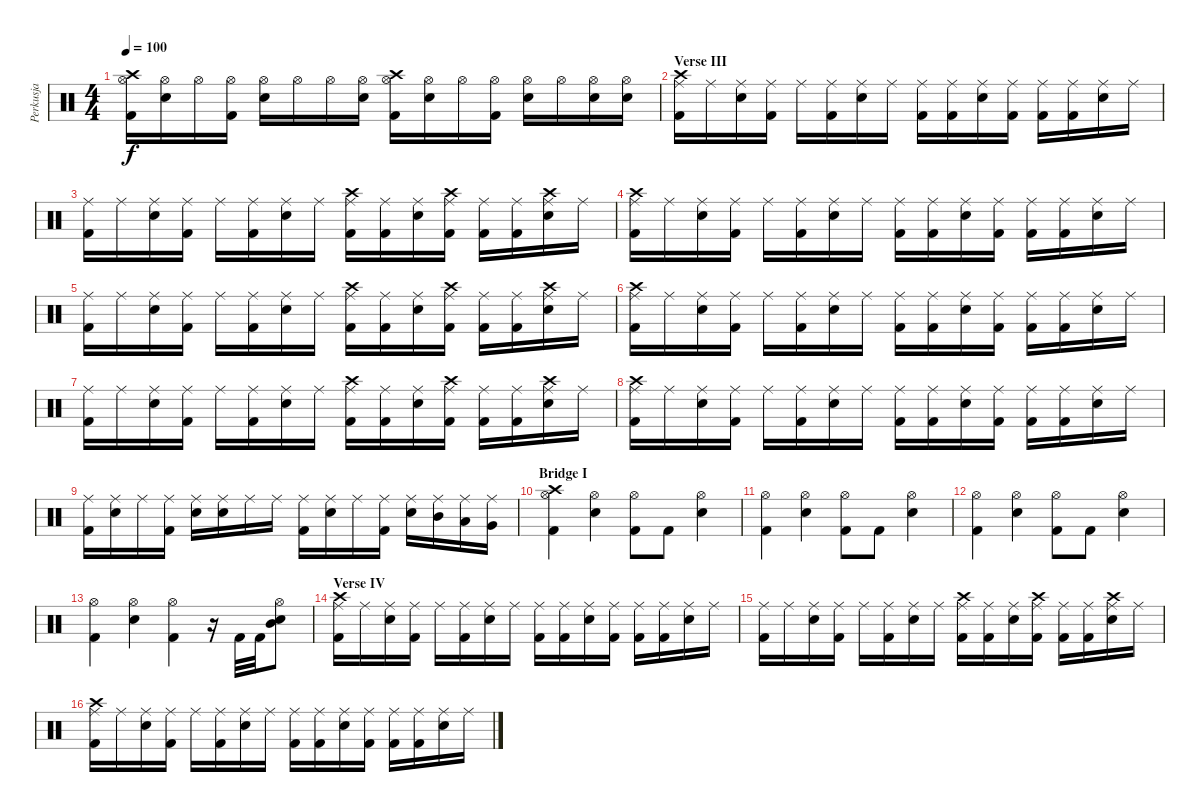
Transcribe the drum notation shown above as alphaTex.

\track ("Perkusja" "Perkusja") {instrument percussion}
\staff {score}
\articulation defaults
\ts (4 4)
\tempo 100
\clef neutral
\ks c
("Kick (hit) 2" "Hi-Hat (open)" "Crash high (hit)").16{dy f} ("Snare (hit) 2" "Hi-Hat (open)").16 "Hi-Hat (open)".16 ("Kick (hit) 2" "Hi-Hat (open)").16 ("Snare (hit) 2" "Hi-Hat (open)").16 "Hi-Hat (open)".16 "Hi-Hat (open)".16 ("Snare (hit) 2" "Hi-Hat (open)").16 ("Kick (hit) 2" "Hi-Hat (open)" "Crash high (hit)").16 ("Snare (hit) 2" "Hi-Hat (open)").16 "Hi-Hat (open)".16 ("Kick (hit) 2" "Hi-Hat (open)").16 ("Snare (hit) 2" "Hi-Hat (open)").16 "Hi-Hat (open)".16 ("Snare (hit) 2" "Hi-Hat (open)").16 ("Snare (hit) 2" "Hi-Hat (open)").16 |
\section ("" "Verse III")
("Kick (hit) 2" "Ride (middle)" "Crash high (hit)").16 "Ride (middle)".16 ("Snare (hit) 2" "Ride (middle)").16 ("Kick (hit) 2" "Ride (middle)").16 "Ride (middle)".16 ("Kick (hit) 2" "Ride (middle)").16 ("Snare (hit) 2" "Ride (middle)").16 "Ride (middle)".16 ("Kick (hit) 2" "Ride (middle)").16 ("Kick (hit) 2" "Ride (middle)").16 ("Snare (hit) 2" "Ride (middle)").16 ("Kick (hit) 2" "Ride (middle)").16 ("Kick (hit) 2" "Ride (middle)").16 ("Kick (hit) 2" "Ride (middle)").16 ("Snare (hit) 2" "Ride (middle)").16 "Ride (middle)".16 |
("Kick (hit) 2" "Ride (middle)").16 "Ride (middle)".16 ("Snare (hit) 2" "Ride (middle)").16 ("Kick (hit) 2" "Ride (middle)").16 "Ride (middle)".16 ("Kick (hit) 2" "Ride (middle)").16 ("Snare (hit) 2" "Ride (middle)").16 "Ride (middle)".16 ("Kick (hit) 2" "Ride (middle)" "Crash high (hit)").16 ("Kick (hit) 2" "Ride (middle)").16 ("Snare (hit) 2" "Ride (middle)").16 ("Kick (hit) 2" "Ride (middle)" "Crash high (hit)").16 ("Kick (hit) 2" "Ride (middle)").16 ("Kick (hit) 2" "Ride (middle)").16 ("Snare (hit) 2" "Ride (middle)" "Crash high (hit)").16 "Ride (middle)".16 |
("Kick (hit) 2" "Ride (middle)" "Crash high (hit)").16 "Ride (middle)".16 ("Snare (hit) 2" "Ride (middle)").16 ("Kick (hit) 2" "Ride (middle)").16 "Ride (middle)".16 ("Kick (hit) 2" "Ride (middle)").16 ("Snare (hit) 2" "Ride (middle)").16 "Ride (middle)".16 ("Kick (hit) 2" "Ride (middle)").16 ("Kick (hit) 2" "Ride (middle)").16 ("Snare (hit) 2" "Ride (middle)").16 ("Kick (hit) 2" "Ride (middle)").16 ("Kick (hit) 2" "Ride (middle)").16 ("Kick (hit) 2" "Ride (middle)").16 ("Snare (hit) 2" "Ride (middle)").16 "Ride (middle)".16 |
("Kick (hit) 2" "Ride (middle)").16 "Ride (middle)".16 ("Snare (hit) 2" "Ride (middle)").16 ("Kick (hit) 2" "Ride (middle)").16 "Ride (middle)".16 ("Kick (hit) 2" "Ride (middle)").16 ("Snare (hit) 2" "Ride (middle)").16 "Ride (middle)".16 ("Kick (hit) 2" "Ride (middle)" "Crash high (hit)").16 ("Kick (hit) 2" "Ride (middle)").16 ("Snare (hit) 2" "Ride (middle)").16 ("Kick (hit) 2" "Ride (middle)" "Crash high (hit)").16 ("Kick (hit) 2" "Ride (middle)").16 ("Kick (hit) 2" "Ride (middle)").16 ("Snare (hit) 2" "Ride (middle)" "Crash high (hit)").16 "Ride (middle)".16 |
("Kick (hit) 2" "Ride (middle)" "Crash high (hit)").16 "Ride (middle)".16 ("Snare (hit) 2" "Ride (middle)").16 ("Kick (hit) 2" "Ride (middle)").16 "Ride (middle)".16 ("Kick (hit) 2" "Ride (middle)").16 ("Snare (hit) 2" "Ride (middle)").16 "Ride (middle)".16 ("Kick (hit) 2" "Ride (middle)").16 ("Kick (hit) 2" "Ride (middle)").16 ("Snare (hit) 2" "Ride (middle)").16 ("Kick (hit) 2" "Ride (middle)").16 ("Kick (hit) 2" "Ride (middle)").16 ("Kick (hit) 2" "Ride (middle)").16 ("Snare (hit) 2" "Ride (middle)").16 "Ride (middle)".16 |
("Kick (hit) 2" "Ride (middle)").16 "Ride (middle)".16 ("Snare (hit) 2" "Ride (middle)").16 ("Kick (hit) 2" "Ride (middle)").16 "Ride (middle)".16 ("Kick (hit) 2" "Ride (middle)").16 ("Snare (hit) 2" "Ride (middle)").16 "Ride (middle)".16 ("Kick (hit) 2" "Ride (middle)" "Crash high (hit)").16 ("Kick (hit) 2" "Ride (middle)").16 ("Snare (hit) 2" "Ride (middle)").16 ("Kick (hit) 2" "Ride (middle)" "Crash high (hit)").16 ("Kick (hit) 2" "Ride (middle)").16 ("Kick (hit) 2" "Ride (middle)").16 ("Snare (hit) 2" "Ride (middle)" "Crash high (hit)").16 "Ride (middle)".16 |
("Kick (hit) 2" "Ride (middle)" "Crash high (hit)").16 "Ride (middle)".16 ("Snare (hit) 2" "Ride (middle)").16 ("Kick (hit) 2" "Ride (middle)").16 "Ride (middle)".16 ("Kick (hit) 2" "Ride (middle)").16 ("Snare (hit) 2" "Ride (middle)").16 "Ride (middle)".16 ("Kick (hit) 2" "Ride (middle)").16 ("Kick (hit) 2" "Ride (middle)").16 ("Snare (hit) 2" "Ride (middle)").16 ("Kick (hit) 2" "Ride (middle)").16 ("Kick (hit) 2" "Ride (middle)").16 ("Kick (hit) 2" "Ride (middle)").16 ("Snare (hit) 2" "Ride (middle)").16 "Ride (middle)".16 |
("Kick (hit) 2" "Ride (middle)").16 ("Snare (hit) 2" "Ride (middle)").16 "Ride (middle)".16 ("Kick (hit) 2" "Ride (middle)").16 ("Snare (hit) 2" "Ride (middle)").16 ("Snare (hit) 2" "Ride (middle)").16 "Ride (middle)".16 "Ride (middle)".16 ("Kick (hit) 2" "Ride (middle)").16 ("Snare (hit) 2" "Ride (middle)").16 "Ride (middle)".16 ("Kick (hit) 2" "Ride (middle)").16 ("Snare (hit) 2" "Ride (middle)").16 ("Mid Tom (hit)" "Ride (middle)").16 ("Low Tom (hit)" "Ride (middle)").16 ("Very Low Tom (hit)" "Ride (middle)").16 |
\section ("" "Bridge I")
("Kick (hit) 2" "Hi-Hat (open)" "Crash high (hit)").4 ("Snare (hit) 2" "Hi-Hat (open)").4 ("Kick (hit) 2" "Hi-Hat (open)").8 "Kick (hit) 2".8 ("Snare (hit) 2" "Hi-Hat (open)").4 |
("Kick (hit) 2" "Hi-Hat (open)").4 ("Snare (hit) 2" "Hi-Hat (open)").4 ("Kick (hit) 2" "Hi-Hat (open)").8 "Kick (hit) 2".8 ("Snare (hit) 2" "Hi-Hat (open)").4 |
("Kick (hit) 2" "Hi-Hat (open)").4 ("Snare (hit) 2" "Hi-Hat (open)").4 ("Kick (hit) 2" "Hi-Hat (open)").8 "Kick (hit) 2".8 ("Snare (hit) 2" "Hi-Hat (open)").4 |
("Kick (hit) 2" "Hi-Hat (open)").4 ("Snare (hit) 2" "Hi-Hat (open)").4 ("Kick (hit) 2" "Hi-Hat (open)").4 r.16 "Kick (hit) 2".32 "Kick (hit) 2".32 ("Snare (hit) 2" "Hi-Hat (open)" "Mid Tom (hit)").8 |
\section ("" "Verse IV")
("Kick (hit) 2" "Ride (middle)" "Crash high (hit)").16 "Ride (middle)".16 ("Snare (hit) 2" "Ride (middle)").16 ("Kick (hit) 2" "Ride (middle)").16 "Ride (middle)".16 ("Kick (hit) 2" "Ride (middle)").16 ("Snare (hit) 2" "Ride (middle)").16 "Ride (middle)".16 ("Kick (hit) 2" "Ride (middle)").16 ("Kick (hit) 2" "Ride (middle)").16 ("Snare (hit) 2" "Ride (middle)").16 ("Kick (hit) 2" "Ride (middle)").16 ("Kick (hit) 2" "Ride (middle)").16 ("Kick (hit) 2" "Ride (middle)").16 ("Snare (hit) 2" "Ride (middle)").16 "Ride (middle)".16 |
("Kick (hit) 2" "Ride (middle)").16 "Ride (middle)".16 ("Snare (hit) 2" "Ride (middle)").16 ("Kick (hit) 2" "Ride (middle)").16 "Ride (middle)".16 ("Kick (hit) 2" "Ride (middle)").16 ("Snare (hit) 2" "Ride (middle)").16 "Ride (middle)".16 ("Kick (hit) 2" "Ride (middle)" "Crash high (hit)").16 ("Kick (hit) 2" "Ride (middle)").16 ("Snare (hit) 2" "Ride (middle)").16 ("Kick (hit) 2" "Ride (middle)" "Crash high (hit)").16 ("Kick (hit) 2" "Ride (middle)").16 ("Kick (hit) 2" "Ride (middle)").16 ("Snare (hit) 2" "Ride (middle)" "Crash high (hit)").16 "Ride (middle)".16 |
("Kick (hit) 2" "Ride (middle)" "Crash high (hit)").16 "Ride (middle)".16 ("Snare (hit) 2" "Ride (middle)").16 ("Kick (hit) 2" "Ride (middle)").16 "Ride (middle)".16 ("Kick (hit) 2" "Ride (middle)").16 ("Snare (hit) 2" "Ride (middle)").16 "Ride (middle)".16 ("Kick (hit) 2" "Ride (middle)").16 ("Kick (hit) 2" "Ride (middle)").16 ("Snare (hit) 2" "Ride (middle)").16 ("Kick (hit) 2" "Ride (middle)").16 ("Kick (hit) 2" "Ride (middle)").16 ("Kick (hit) 2" "Ride (middle)").16 ("Snare (hit) 2" "Ride (middle)").16 "Ride (middle)".16
